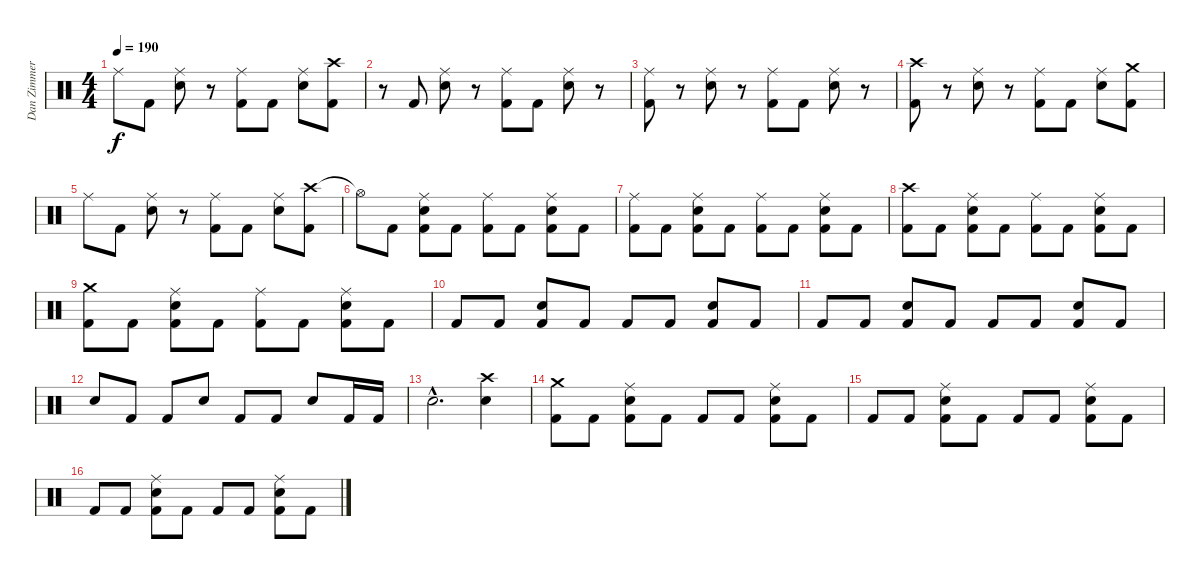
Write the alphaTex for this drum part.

\track ("Dan Zimmermann" "Dan Zimmer") {instrument percussion}
\staff {score}
\articulation defaults
\ts (4 4)
\tempo 190
\clef neutral
\ks c "Ride (middle)".8{dy f} "Kick (hit) 2".8
("Ride (middle)" "Electric Snare (hit)").8 r.8 ("Ride (middle)" "Kick (hit) 2").8 "Kick (hit) 2".8 ("Ride (middle)" "Electric Snare (hit)").8 ("Crash high (hit)" "Kick (hit) 2").8 |
r.8 "Kick (hit) 2".8 ("Ride (middle)" "Electric Snare (hit)").8 r.8 ("Ride (middle)" "Kick (hit) 2").8 "Kick (hit) 2".8 ("Ride (middle)" "Electric Snare (hit)").8 r.8 |
("Ride (middle)" "Kick (hit) 2").8 r.8 ("Ride (middle)" "Electric Snare (hit)").8 r.8 ("Ride (middle)" "Kick (hit) 2").8 "Kick (hit) 2".8 ("Ride (middle)" "Electric Snare (hit)").8 r.8 |
("Crash high (hit)" "Kick (hit) 2").8 r.8 ("Ride (middle)" "Electric Snare (hit)").8 r.8 ("Ride (middle)" "Kick (hit) 2").8 "Kick (hit) 2".8 ("Ride (middle)" "Electric Snare (hit)").8 ("Crash medium (hit)" "Kick (hit) 2").8 |
"Ride (middle)".8 "Kick (hit) 2".8 ("Ride (middle)" "Electric Snare (hit)").8 r.8 ("Ride (middle)" "Kick (hit) 2").8 "Kick (hit) 2".8 ("Ride (middle)" "Electric Snare (hit)").8 ("Crash high (hit)" "Kick (hit) 2").8 |
"Hi-Hat (open)"{t}.8 "Kick (hit) 2".8 ("Ride (middle)" "Electric Snare (hit)" "Kick (hit) 2").8 "Kick (hit) 2".8 ("Ride (middle)" "Kick (hit) 2").8 "Kick (hit) 2".8 ("Ride (middle)" "Electric Snare (hit)" "Kick (hit) 2").8 "Kick (hit) 2".8 |
("Ride (middle)" "Kick (hit) 2").8 "Kick (hit) 2".8 ("Ride (middle)" "Electric Snare (hit)" "Kick (hit) 2").8 "Kick (hit) 2".8 ("Ride (middle)" "Kick (hit) 2").8 "Kick (hit) 2".8 ("Ride (middle)" "Electric Snare (hit)" "Kick (hit) 2").8 "Kick (hit) 2".8 |
("Crash high (hit)" "Kick (hit) 2").8 "Kick (hit) 2".8 ("Ride (middle)" "Electric Snare (hit)" "Kick (hit) 2").8 "Kick (hit) 2".8 ("Ride (middle)" "Kick (hit) 2").8 "Kick (hit) 2".8 ("Ride (middle)" "Electric Snare (hit)" "Kick (hit) 2").8 "Kick (hit) 2".8 |
("Crash medium (hit)" "Kick (hit) 2").8 "Kick (hit) 2".8 ("Ride (middle)" "Electric Snare (hit)" "Kick (hit) 2").8 "Kick (hit) 2".8 ("Ride (middle)" "Kick (hit) 2").8 "Kick (hit) 2".8 ("Ride (middle)" "Electric Snare (hit)" "Kick (hit) 2").8 "Kick (hit) 2".8 |
"Kick (hit) 2".8 "Kick (hit) 2".8 ("Electric Snare (hit)" "Kick (hit) 2").8 "Kick (hit) 2".8 "Kick (hit) 2".8 "Kick (hit) 2".8 ("Electric Snare (hit)" "Kick (hit) 2").8 "Kick (hit) 2".8 |
"Kick (hit) 2".8 "Kick (hit) 2".8 ("Electric Snare (hit)" "Kick (hit) 2").8 "Kick (hit) 2".8 "Kick (hit) 2".8 "Kick (hit) 2".8 ("Electric Snare (hit)" "Kick (hit) 2").8 "Kick (hit) 2".8 |
"Electric Snare (hit)".8 "Kick (hit) 2".8 "Kick (hit) 2".8 "Electric Snare (hit)".8 "Kick (hit) 2".8 "Kick (hit) 2".8 "Electric Snare (hit)".8 "Kick (hit) 2".16 "Kick (hit) 2".16 |
"Electric Snare (hit)"{hac}.2{d} ("Crash high (hit)" "Electric Snare (hit)").4 |
("Crash medium (hit)" "Kick (hit) 2").8 "Kick (hit) 2".8 ("Ride (middle)" "Electric Snare (hit)" "Kick (hit) 2").8 "Kick (hit) 2".8 "Kick (hit) 2".8 "Kick (hit) 2".8 ("Ride (middle)" "Electric Snare (hit)" "Kick (hit) 2").8 "Kick (hit) 2".8 |
"Kick (hit) 2".8 "Kick (hit) 2".8 ("Ride (middle)" "Electric Snare (hit)" "Kick (hit) 2").8 "Kick (hit) 2".8 "Kick (hit) 2".8 "Kick (hit) 2".8 ("Ride (middle)" "Electric Snare (hit)" "Kick (hit) 2").8 "Kick (hit) 2".8 |
"Kick (hit) 2".8 "Kick (hit) 2".8 ("Ride (middle)" "Electric Snare (hit)" "Kick (hit) 2").8 "Kick (hit) 2".8 "Kick (hit) 2".8 "Kick (hit) 2".8 ("Ride (middle)" "Electric Snare (hit)" "Kick (hit) 2").8 "Kick (hit) 2".8
